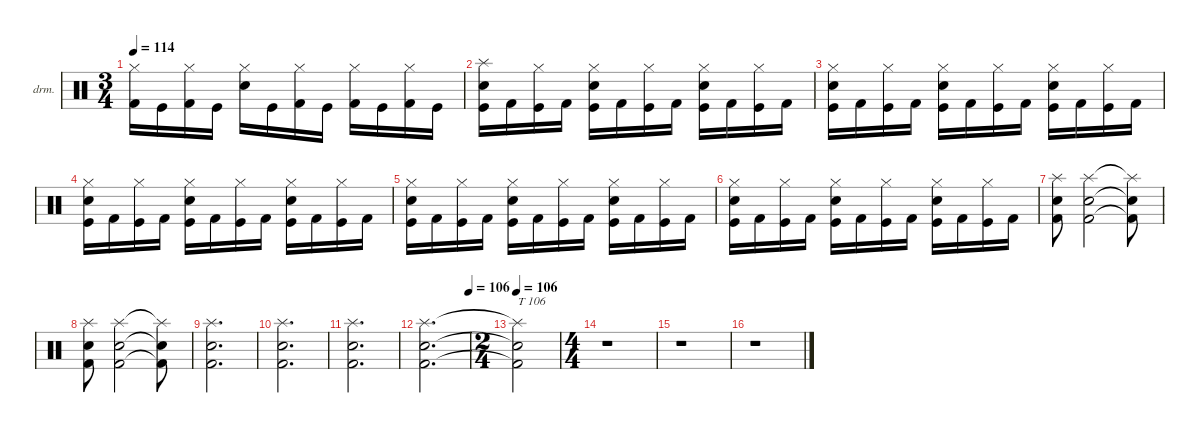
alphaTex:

\defaultSystemsLayout 4
\hideDynamics
\bracketExtendMode nobrackets
\firstSystemTrackNameOrientation horizontal
\otherSystemsTrackNameOrientation horizontal
\track ("Lars Ulrich" "drm.") {instrument percussion}
\staff {score}
\articulation defaults
\ts (3 4)
\tempo 114
\clef neutral
\ks c
("Hi-Hat (closed)" "Kick (hit) 2").16{dy f} "Kick (hit)".16 ("Hi-Hat (closed)" "Kick (hit) 2").16 "Kick (hit)".16 ("Hi-Hat (closed)" "Snare (hit) 2").16 "Kick (hit)".16 ("Hi-Hat (closed)" "Kick (hit) 2").16 "Kick (hit)".16 ("Hi-Hat (closed)" "Kick (hit) 2").16 "Kick (hit)".16 ("Hi-Hat (closed)" "Kick (hit) 2").16 "Kick (hit)".16 |
("Splash (hit)" "Snare (hit) 2" "Kick (hit)").16{dy fff} "Kick (hit) 2".16{dy f} ("Hi-Hat (closed)" "Kick (hit)").16 "Kick (hit) 2".16 ("Hi-Hat (closed)" "Snare (hit) 2" "Kick (hit)").16 "Kick (hit) 2".16 ("Hi-Hat (closed)" "Kick (hit)").16 "Kick (hit) 2".16 ("Hi-Hat (closed)" "Snare (hit) 2" "Kick (hit)").16 "Kick (hit) 2".16 ("Hi-Hat (closed)" "Kick (hit)").16 "Kick (hit) 2".16 |
("Hi-Hat (closed)" "Snare (hit) 2" "Kick (hit)").16 "Kick (hit) 2".16 ("Hi-Hat (closed)" "Kick (hit)").16 "Kick (hit) 2".16 ("Hi-Hat (closed)" "Snare (hit) 2" "Kick (hit)").16 "Kick (hit) 2".16 ("Hi-Hat (closed)" "Kick (hit)").16 "Kick (hit) 2".16 ("Hi-Hat (closed)" "Snare (hit) 2" "Kick (hit)").16 "Kick (hit) 2".16 ("Hi-Hat (closed)" "Kick (hit)").16 "Kick (hit) 2".16 |
("Hi-Hat (closed)" "Snare (hit) 2" "Kick (hit)").16 "Kick (hit) 2".16 ("Hi-Hat (closed)" "Kick (hit)").16 "Kick (hit) 2".16 ("Hi-Hat (closed)" "Snare (hit) 2" "Kick (hit)").16 "Kick (hit) 2".16 ("Hi-Hat (closed)" "Kick (hit)").16 "Kick (hit) 2".16 ("Hi-Hat (closed)" "Snare (hit) 2" "Kick (hit)").16 "Kick (hit) 2".16 ("Hi-Hat (closed)" "Kick (hit)").16 "Kick (hit) 2".16 |
("Hi-Hat (closed)" "Snare (hit) 2" "Kick (hit)").16 "Kick (hit) 2".16 ("Hi-Hat (closed)" "Kick (hit)").16 "Kick (hit) 2".16 ("Hi-Hat (closed)" "Snare (hit) 2" "Kick (hit)").16 "Kick (hit) 2".16 ("Hi-Hat (closed)" "Kick (hit)").16 "Kick (hit) 2".16 ("Hi-Hat (closed)" "Snare (hit) 2" "Kick (hit)").16 "Kick (hit) 2".16 ("Hi-Hat (closed)" "Kick (hit)").16 "Kick (hit) 2".16 |
("Hi-Hat (closed)" "Snare (hit) 2" "Kick (hit)").16 "Kick (hit) 2".16 ("Hi-Hat (closed)" "Kick (hit)").16 "Kick (hit) 2".16 ("Hi-Hat (closed)" "Snare (hit) 2" "Kick (hit)").16 "Kick (hit) 2".16 ("Hi-Hat (closed)" "Kick (hit)").16 "Kick (hit) 2".16 ("Hi-Hat (closed)" "Snare (hit) 2" "Kick (hit)").16 "Kick (hit) 2".16 ("Hi-Hat (closed)" "Kick (hit)").16 "Kick (hit) 2".16 |
("Splash (hit)" "Snare (hit) 2" "Kick (hit) 2").8{dy fff} ("Splash (hit)" "Snare (hit) 2" "Kick (hit) 2").2 ("Splash (hit)"{t} "Snare (hit) 2"{t} "Kick (hit) 2"{t}).8{dy f} |
("Splash (hit)" "Snare (hit) 2" "Kick (hit) 2").8{dy fff} ("Splash (hit)" "Snare (hit) 2" "Kick (hit) 2").2 ("Splash (hit)"{t} "Snare (hit) 2"{t} "Kick (hit) 2"{t}).8{dy f} |
("Splash (hit)" "Snare (hit) 2" "Kick (hit) 2").2{d dy fff} |
("Splash (hit)" "Snare (hit) 2" "Kick (hit) 2").2{d} |
("Splash (hit)" "Snare (hit) 2" "Kick (hit) 2").2{d} |
\tempo (106 1)
("Splash (hit)" "Snare (hit) 2" "Kick (hit) 2").2{d} |
\ts (2 4)
\tempo 106
("Splash (hit)"{t} "Snare (hit) 2"{t} "Kick (hit) 2"{t}).2{txt "T 106" dy f} |
\ts (4 4)
r.1 |
r.1 |
r.1
